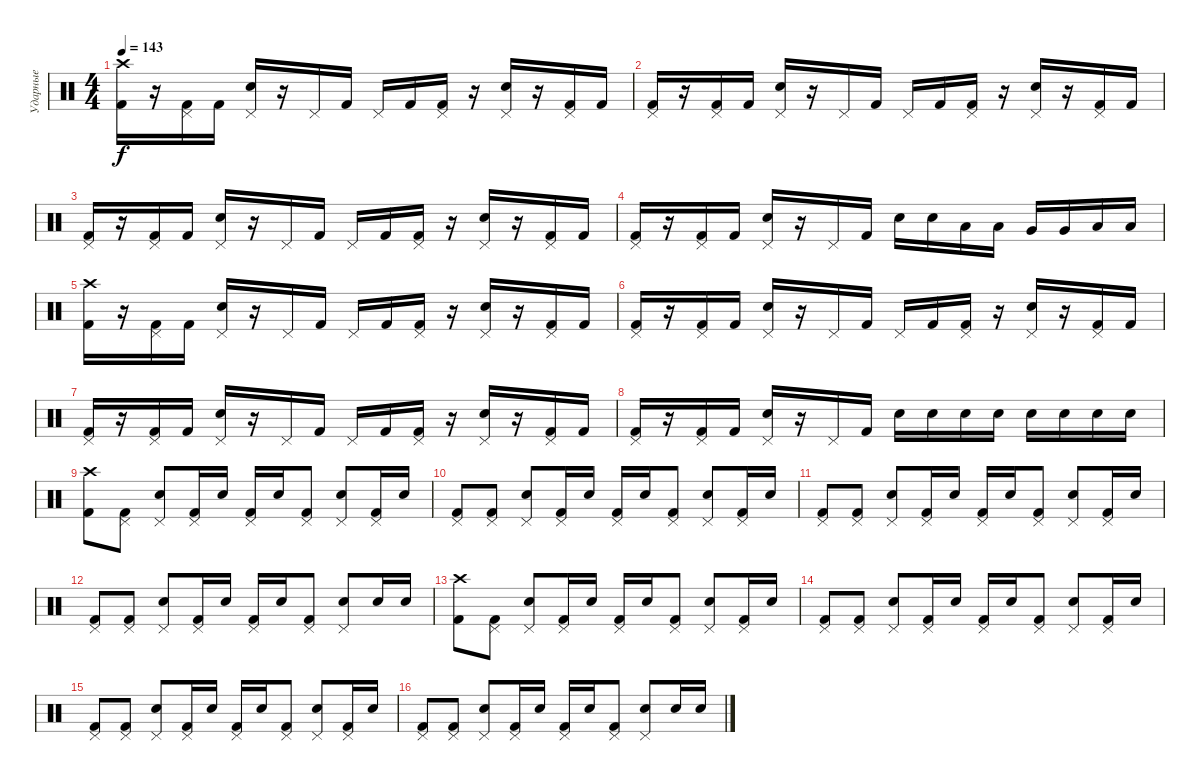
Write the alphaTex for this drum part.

\track ("Ударные" "Ударные") {instrument percussion}
\staff {score}
\articulation defaults
\ts (4 4)
\tempo 143
\clef neutral
\ks c
("Crash high (hit)" "Kick (hit) 2").16{dy f} r.16 ("Pedal Hi-Hat (hit)" "Kick (hit) 2").16 "Kick (hit) 2".16 ("Pedal Hi-Hat (hit)" "Electric Snare (hit)").16 r.16 "Pedal Hi-Hat (hit)".16 "Kick (hit) 2".16 "Pedal Hi-Hat (hit)".16 "Kick (hit) 2".16 ("Pedal Hi-Hat (hit)" "Kick (hit) 2").16 r.16 ("Pedal Hi-Hat (hit)" "Electric Snare (hit)").16 r.16 ("Pedal Hi-Hat (hit)" "Kick (hit) 2").16 "Kick (hit) 2".16 |
("Pedal Hi-Hat (hit)" "Kick (hit) 2").16 r.16 ("Pedal Hi-Hat (hit)" "Kick (hit) 2").16 "Kick (hit) 2".16 ("Pedal Hi-Hat (hit)" "Electric Snare (hit)").16 r.16 "Pedal Hi-Hat (hit)".16 "Kick (hit) 2".16 "Pedal Hi-Hat (hit)".16 "Kick (hit) 2".16 ("Pedal Hi-Hat (hit)" "Kick (hit) 2").16 r.16 ("Pedal Hi-Hat (hit)" "Electric Snare (hit)").16 r.16 ("Pedal Hi-Hat (hit)" "Kick (hit) 2").16 "Kick (hit) 2".16 |
("Pedal Hi-Hat (hit)" "Kick (hit) 2").16 r.16 ("Pedal Hi-Hat (hit)" "Kick (hit) 2").16 "Kick (hit) 2".16 ("Pedal Hi-Hat (hit)" "Electric Snare (hit)").16 r.16 "Pedal Hi-Hat (hit)".16 "Kick (hit) 2".16 "Pedal Hi-Hat (hit)".16 "Kick (hit) 2".16 ("Pedal Hi-Hat (hit)" "Kick (hit) 2").16 r.16 ("Pedal Hi-Hat (hit)" "Electric Snare (hit)").16 r.16 ("Pedal Hi-Hat (hit)" "Kick (hit) 2").16 "Kick (hit) 2".16 |
("Pedal Hi-Hat (hit)" "Kick (hit) 2").16 r.16 ("Pedal Hi-Hat (hit)" "Kick (hit) 2").16 "Kick (hit) 2".16 ("Pedal Hi-Hat (hit)" "Electric Snare (hit)").16 r.16 "Pedal Hi-Hat (hit)".16 "Kick (hit) 2".16 "Electric Snare (hit)".16 "Electric Snare (hit)".16 "Low Tom (hit)".16 "Low Tom (hit)".16 "Very Low Tom (hit)".16 "Very Low Tom (hit)".16 "Low Floor Tom (hit)".16 "Low Floor Tom (hit)".16 |
("Crash high (hit)" "Kick (hit) 2").16 r.16 ("Pedal Hi-Hat (hit)" "Kick (hit) 2").16 "Kick (hit) 2".16 ("Pedal Hi-Hat (hit)" "Electric Snare (hit)").16 r.16 "Pedal Hi-Hat (hit)".16 "Kick (hit) 2".16 "Pedal Hi-Hat (hit)".16 "Kick (hit) 2".16 ("Pedal Hi-Hat (hit)" "Kick (hit) 2").16 r.16 ("Pedal Hi-Hat (hit)" "Electric Snare (hit)").16 r.16 ("Pedal Hi-Hat (hit)" "Kick (hit) 2").16 "Kick (hit) 2".16 |
("Pedal Hi-Hat (hit)" "Kick (hit) 2").16 r.16 ("Pedal Hi-Hat (hit)" "Kick (hit) 2").16 "Kick (hit) 2".16 ("Pedal Hi-Hat (hit)" "Electric Snare (hit)").16 r.16 "Pedal Hi-Hat (hit)".16 "Kick (hit) 2".16 "Pedal Hi-Hat (hit)".16 "Kick (hit) 2".16 ("Pedal Hi-Hat (hit)" "Kick (hit) 2").16 r.16 ("Pedal Hi-Hat (hit)" "Electric Snare (hit)").16 r.16 ("Pedal Hi-Hat (hit)" "Kick (hit) 2").16 "Kick (hit) 2".16 |
("Pedal Hi-Hat (hit)" "Kick (hit) 2").16 r.16 ("Pedal Hi-Hat (hit)" "Kick (hit) 2").16 "Kick (hit) 2".16 ("Pedal Hi-Hat (hit)" "Electric Snare (hit)").16 r.16 "Pedal Hi-Hat (hit)".16 "Kick (hit) 2".16 "Pedal Hi-Hat (hit)".16 "Kick (hit) 2".16 ("Pedal Hi-Hat (hit)" "Kick (hit) 2").16 r.16 ("Pedal Hi-Hat (hit)" "Electric Snare (hit)").16 r.16 ("Pedal Hi-Hat (hit)" "Kick (hit) 2").16 "Kick (hit) 2".16 |
("Pedal Hi-Hat (hit)" "Kick (hit) 2").16 r.16 ("Pedal Hi-Hat (hit)" "Kick (hit) 2").16 "Kick (hit) 2".16 ("Pedal Hi-Hat (hit)" "Electric Snare (hit)").16 r.16 "Pedal Hi-Hat (hit)".16 "Kick (hit) 2".16 "Electric Snare (hit)".16 "Electric Snare (hit)".16 "Electric Snare (hit)".16 "Electric Snare (hit)".16 "Electric Snare (hit)".16 "Electric Snare (hit)".16 "Electric Snare (hit)".16 "Electric Snare (hit)".16 |
("Crash high (hit)" "Kick (hit) 2").8 ("Pedal Hi-Hat (hit)" "Kick (hit) 2").8 ("Pedal Hi-Hat (hit)" "Electric Snare (hit)").8 ("Pedal Hi-Hat (hit)" "Kick (hit) 2").16 "Electric Snare (hit)".16 ("Pedal Hi-Hat (hit)" "Kick (hit) 2").16 "Electric Snare (hit)".16 ("Pedal Hi-Hat (hit)" "Kick (hit) 2").8 ("Pedal Hi-Hat (hit)" "Electric Snare (hit)").8 ("Pedal Hi-Hat (hit)" "Kick (hit) 2").16 "Electric Snare (hit)".16 |
("Pedal Hi-Hat (hit)" "Kick (hit) 2").8 ("Pedal Hi-Hat (hit)" "Kick (hit) 2").8 ("Pedal Hi-Hat (hit)" "Electric Snare (hit)").8 ("Pedal Hi-Hat (hit)" "Kick (hit) 2").16 "Electric Snare (hit)".16 ("Pedal Hi-Hat (hit)" "Kick (hit) 2").16 "Electric Snare (hit)".16 ("Pedal Hi-Hat (hit)" "Kick (hit) 2").8 ("Pedal Hi-Hat (hit)" "Electric Snare (hit)").8 ("Pedal Hi-Hat (hit)" "Kick (hit) 2").16 "Electric Snare (hit)".16 |
("Pedal Hi-Hat (hit)" "Kick (hit) 2").8 ("Pedal Hi-Hat (hit)" "Kick (hit) 2").8 ("Pedal Hi-Hat (hit)" "Electric Snare (hit)").8 ("Pedal Hi-Hat (hit)" "Kick (hit) 2").16 "Electric Snare (hit)".16 ("Pedal Hi-Hat (hit)" "Kick (hit) 2").16 "Electric Snare (hit)".16 ("Pedal Hi-Hat (hit)" "Kick (hit) 2").8 ("Pedal Hi-Hat (hit)" "Electric Snare (hit)").8 ("Pedal Hi-Hat (hit)" "Kick (hit) 2").16 "Electric Snare (hit)".16 |
("Pedal Hi-Hat (hit)" "Kick (hit) 2").8 ("Pedal Hi-Hat (hit)" "Kick (hit) 2").8 ("Pedal Hi-Hat (hit)" "Electric Snare (hit)").8 ("Pedal Hi-Hat (hit)" "Kick (hit) 2").16 "Electric Snare (hit)".16 ("Pedal Hi-Hat (hit)" "Kick (hit) 2").16 "Electric Snare (hit)".16 ("Pedal Hi-Hat (hit)" "Kick (hit) 2").8 ("Pedal Hi-Hat (hit)" "Electric Snare (hit)").8 "Electric Snare (hit)".16 "Electric Snare (hit)".16 |
("Crash high (hit)" "Kick (hit) 2").8 ("Pedal Hi-Hat (hit)" "Kick (hit) 2").8 ("Pedal Hi-Hat (hit)" "Electric Snare (hit)").8 ("Pedal Hi-Hat (hit)" "Kick (hit) 2").16 "Electric Snare (hit)".16 ("Pedal Hi-Hat (hit)" "Kick (hit) 2").16 "Electric Snare (hit)".16 ("Pedal Hi-Hat (hit)" "Kick (hit) 2").8 ("Pedal Hi-Hat (hit)" "Electric Snare (hit)").8 ("Pedal Hi-Hat (hit)" "Kick (hit) 2").16 "Electric Snare (hit)".16 |
("Pedal Hi-Hat (hit)" "Kick (hit) 2").8 ("Pedal Hi-Hat (hit)" "Kick (hit) 2").8 ("Pedal Hi-Hat (hit)" "Electric Snare (hit)").8 ("Pedal Hi-Hat (hit)" "Kick (hit) 2").16 "Electric Snare (hit)".16 ("Pedal Hi-Hat (hit)" "Kick (hit) 2").16 "Electric Snare (hit)".16 ("Pedal Hi-Hat (hit)" "Kick (hit) 2").8 ("Pedal Hi-Hat (hit)" "Electric Snare (hit)").8 ("Pedal Hi-Hat (hit)" "Kick (hit) 2").16 "Electric Snare (hit)".16 |
("Pedal Hi-Hat (hit)" "Kick (hit) 2").8 ("Pedal Hi-Hat (hit)" "Kick (hit) 2").8 ("Pedal Hi-Hat (hit)" "Electric Snare (hit)").8 ("Pedal Hi-Hat (hit)" "Kick (hit) 2").16 "Electric Snare (hit)".16 ("Pedal Hi-Hat (hit)" "Kick (hit) 2").16 "Electric Snare (hit)".16 ("Pedal Hi-Hat (hit)" "Kick (hit) 2").8 ("Pedal Hi-Hat (hit)" "Electric Snare (hit)").8 ("Pedal Hi-Hat (hit)" "Kick (hit) 2").16 "Electric Snare (hit)".16 |
("Pedal Hi-Hat (hit)" "Kick (hit) 2").8 ("Pedal Hi-Hat (hit)" "Kick (hit) 2").8 ("Pedal Hi-Hat (hit)" "Electric Snare (hit)").8 ("Pedal Hi-Hat (hit)" "Kick (hit) 2").16 "Electric Snare (hit)".16 ("Pedal Hi-Hat (hit)" "Kick (hit) 2").16 "Electric Snare (hit)".16 ("Pedal Hi-Hat (hit)" "Kick (hit) 2").8 ("Pedal Hi-Hat (hit)" "Electric Snare (hit)").8 "Electric Snare (hit)".16 "Electric Snare (hit)".16
